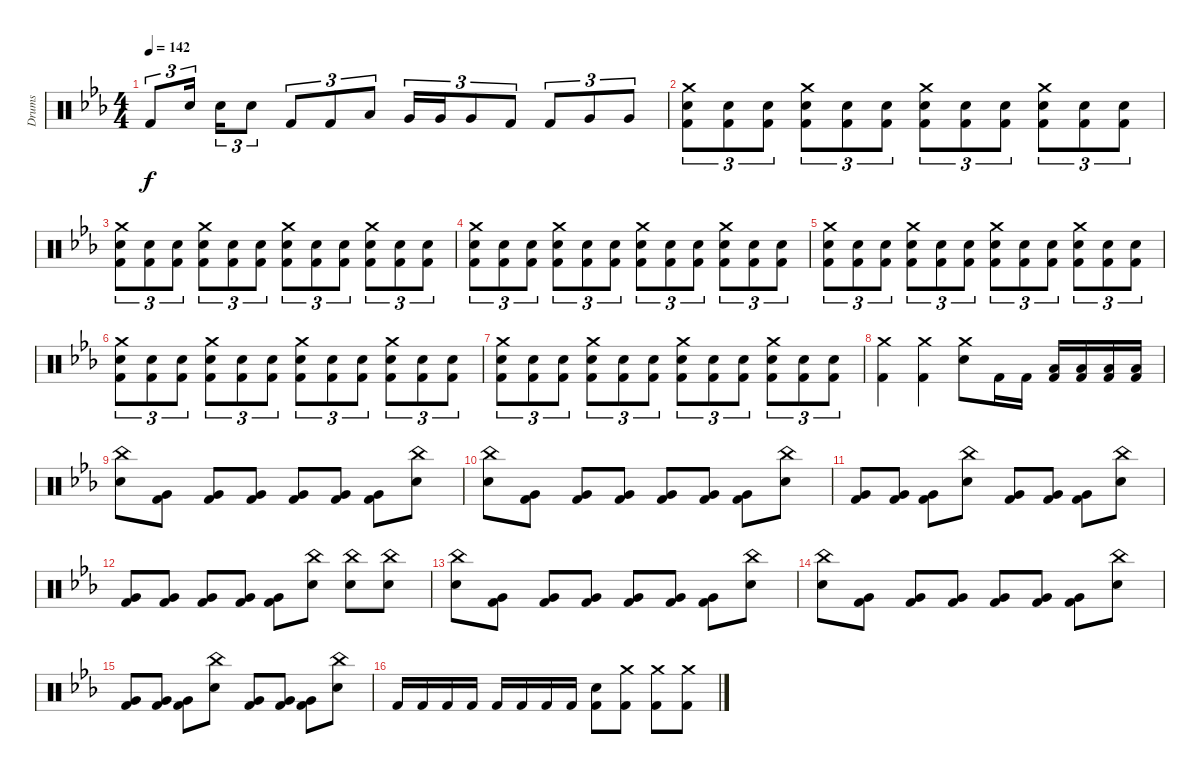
\track ("Drums" "Drums") {instrument percussion}
\staff {score}
\articulation defaults
\ts (4 4)
\tempo 142
\clef neutral
\ks cminor "Kick (hit) 2".8{tu (3 2) dy f} "Electric Snare (hit)".16{tu (3 2) beam splitsecondary} "Electric Snare (hit)".16{tu (3 2)} "Electric Snare (hit)".8{tu (3 2)} "Kick (hit) 2".8{tu (3 2)} "Kick (hit) 2".8{tu (3 2)} "Low Tom (hit)".8{tu (3 2)} "Very Low Tom (hit)".16{tu (3 2)} "Very Low Tom (hit)".16{tu (3 2)} "Very Low Tom (hit)".8{tu (3 2)} "Kick (hit) 2".8{tu (3 2)} "Kick (hit) 2".8{tu (3 2)} "Very Low Tom (hit)".8{tu (3 2)} "Very Low Tom (hit)".8{tu (3 2)}
|
("Crash medium (hit)" "Electric Snare (hit)" "Kick (hit) 2").8{tu (3 2)} ("Electric Snare (hit)" "Kick (hit) 2").8{tu (3 2)} ("Electric Snare (hit)" "Kick (hit) 2").8{tu (3 2)} ("Crash medium (hit)" "Electric Snare (hit)" "Kick (hit) 2").8{tu (3 2)} ("Electric Snare (hit)" "Kick (hit) 2").8{tu (3 2)} ("Electric Snare (hit)" "Kick (hit) 2").8{tu (3 2)} ("Crash medium (hit)" "Electric Snare (hit)" "Kick (hit) 2").8{tu (3 2)} ("Electric Snare (hit)" "Kick (hit) 2").8{tu (3 2)} ("Electric Snare (hit)" "Kick (hit) 2").8{tu (3 2)} ("Crash medium (hit)" "Electric Snare (hit)" "Kick (hit) 2").8{tu (3 2)} ("Electric Snare (hit)" "Kick (hit) 2").8{tu (3 2)} ("Electric Snare (hit)" "Kick (hit) 2").8{tu (3 2)} |
("Crash medium (hit)" "Electric Snare (hit)" "Kick (hit) 2").8{tu (3 2)} ("Electric Snare (hit)" "Kick (hit) 2").8{tu (3 2)} ("Electric Snare (hit)" "Kick (hit) 2").8{tu (3 2)} ("Crash medium (hit)" "Electric Snare (hit)" "Kick (hit) 2").8{tu (3 2)} ("Electric Snare (hit)" "Kick (hit) 2").8{tu (3 2)} ("Electric Snare (hit)" "Kick (hit) 2").8{tu (3 2)} ("Crash medium (hit)" "Electric Snare (hit)" "Kick (hit) 2").8{tu (3 2)} ("Electric Snare (hit)" "Kick (hit) 2").8{tu (3 2)} ("Electric Snare (hit)" "Kick (hit) 2").8{tu (3 2)} ("Crash medium (hit)" "Electric Snare (hit)" "Kick (hit) 2").8{tu (3 2)} ("Electric Snare (hit)" "Kick (hit) 2").8{tu (3 2)} ("Electric Snare (hit)" "Kick (hit) 2").8{tu (3 2)} |
("Crash medium (hit)" "Electric Snare (hit)" "Kick (hit) 2").8{tu (3 2)} ("Electric Snare (hit)" "Kick (hit) 2").8{tu (3 2)} ("Electric Snare (hit)" "Kick (hit) 2").8{tu (3 2)} ("Crash medium (hit)" "Electric Snare (hit)" "Kick (hit) 2").8{tu (3 2)} ("Electric Snare (hit)" "Kick (hit) 2").8{tu (3 2)} ("Electric Snare (hit)" "Kick (hit) 2").8{tu (3 2)} ("Crash medium (hit)" "Electric Snare (hit)" "Kick (hit) 2").8{tu (3 2)} ("Electric Snare (hit)" "Kick (hit) 2").8{tu (3 2)} ("Electric Snare (hit)" "Kick (hit) 2").8{tu (3 2)} ("Crash medium (hit)" "Electric Snare (hit)" "Kick (hit) 2").8{tu (3 2)} ("Electric Snare (hit)" "Kick (hit) 2").8{tu (3 2)} ("Electric Snare (hit)" "Kick (hit) 2").8{tu (3 2)} |
("Crash medium (hit)" "Electric Snare (hit)" "Kick (hit) 2").8{tu (3 2)} ("Electric Snare (hit)" "Kick (hit) 2").8{tu (3 2)} ("Electric Snare (hit)" "Kick (hit) 2").8{tu (3 2)} ("Crash medium (hit)" "Electric Snare (hit)" "Kick (hit) 2").8{tu (3 2)} ("Electric Snare (hit)" "Kick (hit) 2").8{tu (3 2)} ("Electric Snare (hit)" "Kick (hit) 2").8{tu (3 2)} ("Crash medium (hit)" "Electric Snare (hit)" "Kick (hit) 2").8{tu (3 2)} ("Electric Snare (hit)" "Kick (hit) 2").8{tu (3 2)} ("Electric Snare (hit)" "Kick (hit) 2").8{tu (3 2)} ("Crash medium (hit)" "Electric Snare (hit)" "Kick (hit) 2").8{tu (3 2)} ("Electric Snare (hit)" "Kick (hit) 2").8{tu (3 2)} ("Electric Snare (hit)" "Kick (hit) 2").8{tu (3 2)} |
("Crash medium (hit)" "Electric Snare (hit)" "Kick (hit) 2").8{tu (3 2)} ("Electric Snare (hit)" "Kick (hit) 2").8{tu (3 2)} ("Electric Snare (hit)" "Kick (hit) 2").8{tu (3 2)} ("Crash medium (hit)" "Electric Snare (hit)" "Kick (hit) 2").8{tu (3 2)} ("Electric Snare (hit)" "Kick (hit) 2").8{tu (3 2)} ("Electric Snare (hit)" "Kick (hit) 2").8{tu (3 2)} ("Crash medium (hit)" "Electric Snare (hit)" "Kick (hit) 2").8{tu (3 2)} ("Electric Snare (hit)" "Kick (hit) 2").8{tu (3 2)} ("Electric Snare (hit)" "Kick (hit) 2").8{tu (3 2)} ("Crash medium (hit)" "Electric Snare (hit)" "Kick (hit) 2").8{tu (3 2)} ("Electric Snare (hit)" "Kick (hit) 2").8{tu (3 2)} ("Electric Snare (hit)" "Kick (hit) 2").8{tu (3 2)} |
("Crash medium (hit)" "Electric Snare (hit)" "Kick (hit) 2").8{tu (3 2)} ("Electric Snare (hit)" "Kick (hit) 2").8{tu (3 2)} ("Electric Snare (hit)" "Kick (hit) 2").8{tu (3 2)} ("Crash medium (hit)" "Electric Snare (hit)" "Kick (hit) 2").8{tu (3 2)} ("Electric Snare (hit)" "Kick (hit) 2").8{tu (3 2)} ("Electric Snare (hit)" "Kick (hit) 2").8{tu (3 2)} ("Crash medium (hit)" "Electric Snare (hit)" "Kick (hit) 2").8{tu (3 2)} ("Electric Snare (hit)" "Kick (hit) 2").8{tu (3 2)} ("Electric Snare (hit)" "Kick (hit) 2").8{tu (3 2)} ("Crash medium (hit)" "Electric Snare (hit)" "Kick (hit) 2").8{tu (3 2)} ("Electric Snare (hit)" "Kick (hit) 2").8{tu (3 2)} ("Electric Snare (hit)" "Kick (hit) 2").8{tu (3 2)} |
("Crash medium (hit)" "Kick (hit) 2").4 ("Crash medium (hit)" "Kick (hit) 2").4 ("Crash medium (hit)" "Electric Snare (hit)").8 "Kick (hit) 2".16 "Kick (hit) 2".16 ("Low Tom (hit)" "Kick (hit) 2").16 ("Low Tom (hit)" "Kick (hit) 2").16 ("Low Tom (hit)" "Kick (hit) 2").16 ("Low Tom (hit)" "Kick (hit) 2").16 |
("China (hit)" "Electric Snare (hit)").8 ("Very Low Tom (hit)" "Kick (hit) 2").8 ("Very Low Tom (hit)" "Kick (hit) 2").8 ("Very Low Tom (hit)" "Kick (hit) 2").8 ("Very Low Tom (hit)" "Kick (hit) 2").8 ("Very Low Tom (hit)" "Kick (hit) 2").8 ("Very Low Tom (hit)" "Kick (hit) 2").8 ("China (hit)" "Electric Snare (hit)").8 |
("China (hit)" "Electric Snare (hit)").8 ("Very Low Tom (hit)" "Kick (hit) 2").8 ("Very Low Tom (hit)" "Kick (hit) 2").8 ("Very Low Tom (hit)" "Kick (hit) 2").8 ("Very Low Tom (hit)" "Kick (hit) 2").8 ("Very Low Tom (hit)" "Kick (hit) 2").8 ("Very Low Tom (hit)" "Kick (hit) 2").8 ("China (hit)" "Electric Snare (hit)").8 |
("Very Low Tom (hit)" "Kick (hit) 2").8 ("Very Low Tom (hit)" "Kick (hit) 2").8 ("Very Low Tom (hit)" "Kick (hit) 2").8 ("China (hit)" "Electric Snare (hit)").8 ("Very Low Tom (hit)" "Kick (hit) 2").8 ("Very Low Tom (hit)" "Kick (hit) 2").8 ("Very Low Tom (hit)" "Kick (hit) 2").8 ("China (hit)" "Electric Snare (hit)").8 |
("Very Low Tom (hit)" "Kick (hit) 2").8 ("Very Low Tom (hit)" "Kick (hit) 2").8 ("Very Low Tom (hit)" "Kick (hit) 2").8 ("Very Low Tom (hit)" "Kick (hit) 2").8 ("Very Low Tom (hit)" "Kick (hit) 2").8 ("China (hit)" "Electric Snare (hit)").8 ("China (hit)" "Electric Snare (hit)").8 ("China (hit)" "Electric Snare (hit)").8 |
("China (hit)" "Electric Snare (hit)").8 ("Very Low Tom (hit)" "Kick (hit) 2").8 ("Very Low Tom (hit)" "Kick (hit) 2").8 ("Very Low Tom (hit)" "Kick (hit) 2").8 ("Very Low Tom (hit)" "Kick (hit) 2").8 ("Very Low Tom (hit)" "Kick (hit) 2").8 ("Very Low Tom (hit)" "Kick (hit) 2").8 ("China (hit)" "Electric Snare (hit)").8 |
("China (hit)" "Electric Snare (hit)").8 ("Very Low Tom (hit)" "Kick (hit) 2").8 ("Very Low Tom (hit)" "Kick (hit) 2").8 ("Very Low Tom (hit)" "Kick (hit) 2").8 ("Very Low Tom (hit)" "Kick (hit) 2").8 ("Very Low Tom (hit)" "Kick (hit) 2").8 ("Very Low Tom (hit)" "Kick (hit) 2").8 ("China (hit)" "Electric Snare (hit)").8 |
("Very Low Tom (hit)" "Kick (hit) 2").8 ("Very Low Tom (hit)" "Kick (hit) 2").8 ("Very Low Tom (hit)" "Kick (hit) 2").8 ("China (hit)" "Electric Snare (hit)").8 ("Very Low Tom (hit)" "Kick (hit) 2").8 ("Very Low Tom (hit)" "Kick (hit) 2").8 ("Very Low Tom (hit)" "Kick (hit) 2").8 ("China (hit)" "Electric Snare (hit)").8 |
"Kick (hit) 2".16 "Kick (hit) 2".16 "Kick (hit) 2".16 "Kick (hit) 2".16 "Kick (hit) 2".16 "Kick (hit) 2".16 "Kick (hit) 2".16 "Kick (hit) 2".16 ("Electric Snare (hit)" "Kick (hit) 2").8 ("Crash medium (hit)" "Kick (hit) 2").8 ("Crash medium (hit)" "Kick (hit) 2").8 ("Crash medium (hit)" "Kick (hit) 2").8
